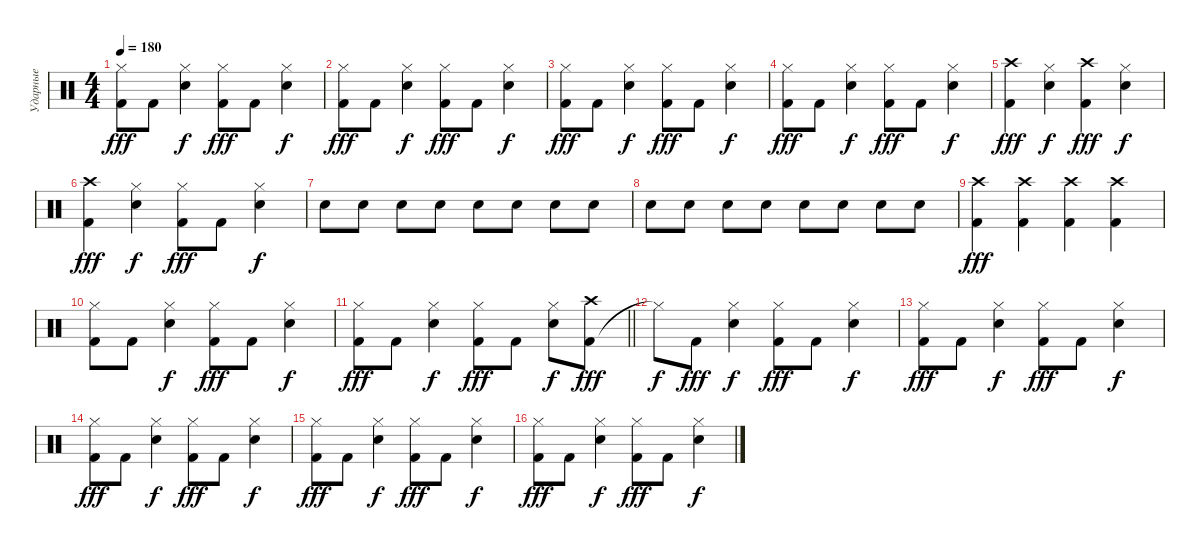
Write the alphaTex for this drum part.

\track ("Ударные" "Ударные") {instrument percussion}
\staff
\articulation defaults
\ts (4 4)
\tempo 180
\clef neutral
\ks c
("Kick (hit) 2" "Hi-Hat (closed)").8{dy fff} "Kick (hit) 2".8 ("Snare (hit) 2" "Hi-Hat (closed)").4{dy f} ("Kick (hit) 2" "Hi-Hat (closed)").8{dy fff} "Kick (hit) 2".8 ("Snare (hit) 2" "Hi-Hat (closed)").4{dy f} |
("Kick (hit) 2" "Hi-Hat (closed)").8{dy fff} "Kick (hit) 2".8 ("Snare (hit) 2" "Hi-Hat (closed)").4{dy f} ("Kick (hit) 2" "Hi-Hat (closed)").8{dy fff} "Kick (hit) 2".8 ("Snare (hit) 2" "Hi-Hat (closed)").4{dy f} |
("Kick (hit) 2" "Hi-Hat (closed)").8{dy fff} "Kick (hit) 2".8 ("Snare (hit) 2" "Hi-Hat (closed)").4{dy f} ("Kick (hit) 2" "Hi-Hat (closed)").8{dy fff} "Kick (hit) 2".8 ("Snare (hit) 2" "Hi-Hat (closed)").4{dy f} |
("Kick (hit) 2" "Hi-Hat (closed)").8{dy fff} "Kick (hit) 2".8 ("Snare (hit) 2" "Hi-Hat (closed)").4{dy f} ("Kick (hit) 2" "Hi-Hat (closed)").8{dy fff} "Kick (hit) 2".8 ("Snare (hit) 2" "Hi-Hat (closed)").4{dy f} |
("Kick (hit) 2" "Crash high (hit)").4{dy fff} ("Snare (hit) 2" "Hi-Hat (closed)").4{dy f} ("Kick (hit) 2" "Crash high (hit)").4{dy fff} ("Snare (hit) 2" "Hi-Hat (closed)").4{dy f} |
("Kick (hit) 2" "Crash high (hit)").4{dy fff} ("Snare (hit) 2" "Hi-Hat (closed)").4{dy f} ("Kick (hit) 2" "Hi-Hat (closed)").8{dy fff} "Kick (hit) 2".8 ("Snare (hit) 2" "Hi-Hat (closed)").4{dy f} |
"Snare (hit) 2".8 "Snare (hit) 2".8 "Snare (hit) 2".8 "Snare (hit) 2".8 "Snare (hit) 2".8 "Snare (hit) 2".8 "Snare (hit) 2".8 "Snare (hit) 2".8 |
"Snare (hit) 2".8 "Snare (hit) 2".8 "Snare (hit) 2".8 "Snare (hit) 2".8 "Snare (hit) 2".8 "Snare (hit) 2".8 "Snare (hit) 2".8 "Snare (hit) 2".8 |
("Kick (hit) 2" "Crash high (hit)").4{dy fff} ("Kick (hit) 2" "Crash high (hit)").4 ("Kick (hit) 2" "Crash high (hit)").4 ("Kick (hit) 2" "Crash high (hit)").4 |
("Kick (hit) 2" "Hi-Hat (closed)").8 "Kick (hit) 2".8 ("Snare (hit) 2" "Hi-Hat (closed)").4{dy f} ("Kick (hit) 2" "Hi-Hat (closed)").8{dy fff} "Kick (hit) 2".8 ("Snare (hit) 2" "Hi-Hat (closed)").4{dy f} |
\barLineRight lightlight
("Kick (hit) 2" "Hi-Hat (closed)").8{dy fff} "Kick (hit) 2".8 ("Snare (hit) 2" "Hi-Hat (closed)").4{dy f} ("Kick (hit) 2" "Hi-Hat (closed)").8{dy fff} "Kick (hit) 2".8 ("Snare (hit) 2" "Hi-Hat (closed)").8{dy f} ("Kick (hit) 2" "Crash high (hit)").8{dy fff} |
"Hi-Hat (closed)"{t}.8{dy f} "Kick (hit) 2".8{dy fff} ("Snare (hit) 2" "Hi-Hat (closed)").4{dy f} ("Kick (hit) 2" "Hi-Hat (closed)").8{dy fff} "Kick (hit) 2".8 ("Snare (hit) 2" "Hi-Hat (closed)").4{dy f} |
("Kick (hit) 2" "Hi-Hat (closed)").8{dy fff} "Kick (hit) 2".8 ("Snare (hit) 2" "Hi-Hat (closed)").4{dy f} ("Kick (hit) 2" "Hi-Hat (closed)").8{dy fff} "Kick (hit) 2".8 ("Snare (hit) 2" "Hi-Hat (closed)").4{dy f} |
("Kick (hit) 2" "Hi-Hat (closed)").8{dy fff} "Kick (hit) 2".8 ("Snare (hit) 2" "Hi-Hat (closed)").4{dy f} ("Kick (hit) 2" "Hi-Hat (closed)").8{dy fff} "Kick (hit) 2".8 ("Snare (hit) 2" "Hi-Hat (closed)").4{dy f} |
("Kick (hit) 2" "Hi-Hat (closed)").8{dy fff} "Kick (hit) 2".8 ("Snare (hit) 2" "Hi-Hat (closed)").4{dy f} ("Kick (hit) 2" "Hi-Hat (closed)").8{dy fff} "Kick (hit) 2".8 ("Snare (hit) 2" "Hi-Hat (closed)").4{dy f} |
("Kick (hit) 2" "Hi-Hat (closed)").8{dy fff} "Kick (hit) 2".8 ("Snare (hit) 2" "Hi-Hat (closed)").4{dy f} ("Kick (hit) 2" "Hi-Hat (closed)").8{dy fff} "Kick (hit) 2".8 ("Snare (hit) 2" "Hi-Hat (closed)").4{dy f}
